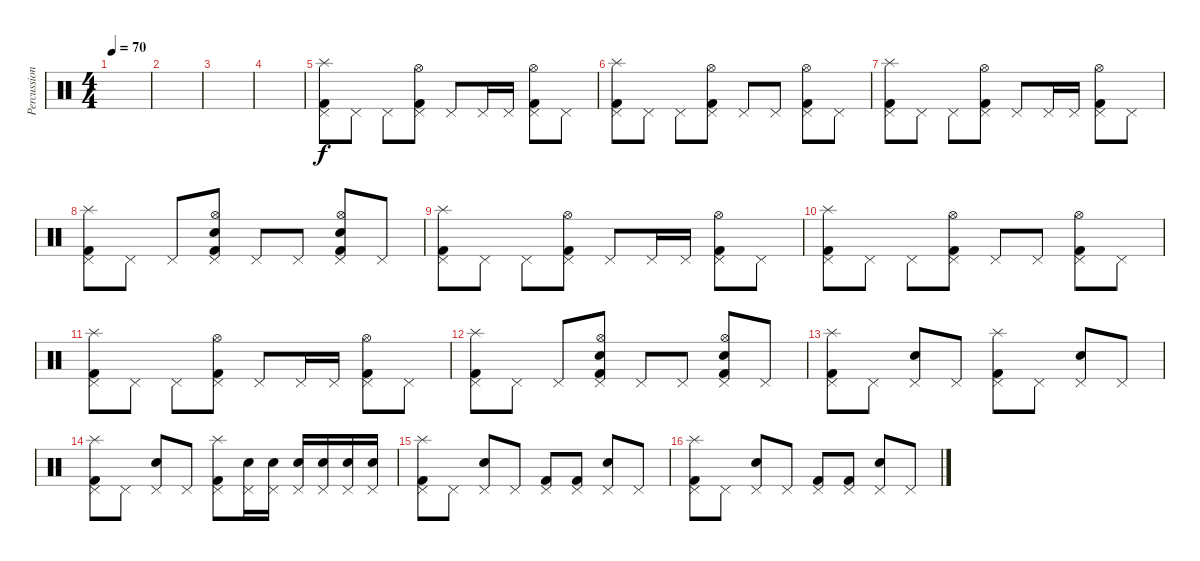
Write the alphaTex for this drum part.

\track ("Percussion" "Percussion") {instrument percussion}
\staff {score}
\articulation defaults
\ts (4 4)
\tempo 70
\clef neutral
\ks c
|
|
|
|
("Kick (hit) 2" "Pedal Hi-Hat (hit)" "Splash (hit)").8 "Pedal Hi-Hat (hit)".8 "Pedal Hi-Hat (hit)".8 ("Kick (hit) 2" "Pedal Hi-Hat (hit)" "Hi-Hat (open)").8 "Pedal Hi-Hat (hit)".8 "Pedal Hi-Hat (hit)".16 "Pedal Hi-Hat (hit)".16 ("Kick (hit) 2" "Pedal Hi-Hat (hit)" "Hi-Hat (open)").8 "Pedal Hi-Hat (hit)".8 |
("Kick (hit) 2" "Pedal Hi-Hat (hit)" "Splash (hit)").8 "Pedal Hi-Hat (hit)".8 "Pedal Hi-Hat (hit)".8 ("Kick (hit) 2" "Pedal Hi-Hat (hit)" "Hi-Hat (open)").8 "Pedal Hi-Hat (hit)".8 "Pedal Hi-Hat (hit)".8 ("Kick (hit) 2" "Pedal Hi-Hat (hit)" "Hi-Hat (open)").8 "Pedal Hi-Hat (hit)".8 |
("Kick (hit) 2" "Pedal Hi-Hat (hit)" "Splash (hit)").8 "Pedal Hi-Hat (hit)".8 "Pedal Hi-Hat (hit)".8 ("Kick (hit) 2" "Pedal Hi-Hat (hit)" "Hi-Hat (open)").8 "Pedal Hi-Hat (hit)".8 "Pedal Hi-Hat (hit)".16 "Pedal Hi-Hat (hit)".16 ("Kick (hit) 2" "Pedal Hi-Hat (hit)" "Hi-Hat (open)").8 "Pedal Hi-Hat (hit)".8 |
("Kick (hit) 2" "Pedal Hi-Hat (hit)" "Splash (hit)").8 "Pedal Hi-Hat (hit)".8 "Pedal Hi-Hat (hit)".8 ("Kick (hit) 2" "Pedal Hi-Hat (hit)" "Hi-Hat (open)" "Electric Snare (hit)").8 "Pedal Hi-Hat (hit)".8 "Pedal Hi-Hat (hit)".8 ("Kick (hit) 2" "Pedal Hi-Hat (hit)" "Hi-Hat (open)" "Electric Snare (hit)").8 "Pedal Hi-Hat (hit)".8 |
("Kick (hit) 2" "Pedal Hi-Hat (hit)" "Splash (hit)").8 "Pedal Hi-Hat (hit)".8 "Pedal Hi-Hat (hit)".8 ("Kick (hit) 2" "Pedal Hi-Hat (hit)" "Hi-Hat (open)").8 "Pedal Hi-Hat (hit)".8 "Pedal Hi-Hat (hit)".16 "Pedal Hi-Hat (hit)".16 ("Kick (hit) 2" "Pedal Hi-Hat (hit)" "Hi-Hat (open)").8 "Pedal Hi-Hat (hit)".8 |
("Kick (hit) 2" "Pedal Hi-Hat (hit)" "Splash (hit)").8 "Pedal Hi-Hat (hit)".8 "Pedal Hi-Hat (hit)".8 ("Kick (hit) 2" "Pedal Hi-Hat (hit)" "Hi-Hat (open)").8 "Pedal Hi-Hat (hit)".8 "Pedal Hi-Hat (hit)".8 ("Kick (hit) 2" "Pedal Hi-Hat (hit)" "Hi-Hat (open)").8 "Pedal Hi-Hat (hit)".8 |
("Kick (hit) 2" "Pedal Hi-Hat (hit)" "Splash (hit)").8 "Pedal Hi-Hat (hit)".8 "Pedal Hi-Hat (hit)".8 ("Kick (hit) 2" "Pedal Hi-Hat (hit)" "Hi-Hat (open)").8 "Pedal Hi-Hat (hit)".8 "Pedal Hi-Hat (hit)".16 "Pedal Hi-Hat (hit)".16 ("Kick (hit) 2" "Pedal Hi-Hat (hit)" "Hi-Hat (open)").8 "Pedal Hi-Hat (hit)".8 |
("Kick (hit) 2" "Pedal Hi-Hat (hit)" "Splash (hit)").8 "Pedal Hi-Hat (hit)".8 "Pedal Hi-Hat (hit)".8 ("Kick (hit) 2" "Pedal Hi-Hat (hit)" "Hi-Hat (open)" "Electric Snare (hit)").8 "Pedal Hi-Hat (hit)".8 "Pedal Hi-Hat (hit)".8 ("Kick (hit) 2" "Pedal Hi-Hat (hit)" "Hi-Hat (open)" "Electric Snare (hit)").8 "Pedal Hi-Hat (hit)".8 |
("Kick (hit) 2" "Pedal Hi-Hat (hit)" "Splash (hit)").8 "Pedal Hi-Hat (hit)".8 ("Pedal Hi-Hat (hit)" "Electric Snare (hit)").8 "Pedal Hi-Hat (hit)".8 ("Kick (hit) 2" "Pedal Hi-Hat (hit)" "Splash (hit)").8 "Pedal Hi-Hat (hit)".8 ("Pedal Hi-Hat (hit)" "Electric Snare (hit)").8 "Pedal Hi-Hat (hit)".8 |
("Kick (hit) 2" "Pedal Hi-Hat (hit)" "Splash (hit)").8 "Pedal Hi-Hat (hit)".8 ("Pedal Hi-Hat (hit)" "Electric Snare (hit)").8 "Pedal Hi-Hat (hit)".8 ("Kick (hit) 2" "Pedal Hi-Hat (hit)" "Splash (hit)").8 ("Pedal Hi-Hat (hit)" "Electric Snare (hit)").16 ("Pedal Hi-Hat (hit)" "Electric Snare (hit)").16 ("Pedal Hi-Hat (hit)" "Electric Snare (hit)").16 ("Pedal Hi-Hat (hit)" "Electric Snare (hit)").16 ("Pedal Hi-Hat (hit)" "Electric Snare (hit)").16 ("Pedal Hi-Hat (hit)" "Electric Snare (hit)").16 |
("Kick (hit) 2" "Pedal Hi-Hat (hit)" "Splash (hit)").8 "Pedal Hi-Hat (hit)".8 ("Pedal Hi-Hat (hit)" "Electric Snare (hit)").8 "Pedal Hi-Hat (hit)".8 ("Kick (hit) 2" "Pedal Hi-Hat (hit)").8 ("Kick (hit) 2" "Pedal Hi-Hat (hit)").8 ("Pedal Hi-Hat (hit)" "Electric Snare (hit)").8 "Pedal Hi-Hat (hit)".8 |
("Kick (hit) 2" "Pedal Hi-Hat (hit)" "Splash (hit)").8 "Pedal Hi-Hat (hit)".8 ("Pedal Hi-Hat (hit)" "Electric Snare (hit)").8 "Pedal Hi-Hat (hit)".8 ("Kick (hit) 2" "Pedal Hi-Hat (hit)").8 ("Kick (hit) 2" "Pedal Hi-Hat (hit)").8 ("Pedal Hi-Hat (hit)" "Electric Snare (hit)").8 "Pedal Hi-Hat (hit)".8
